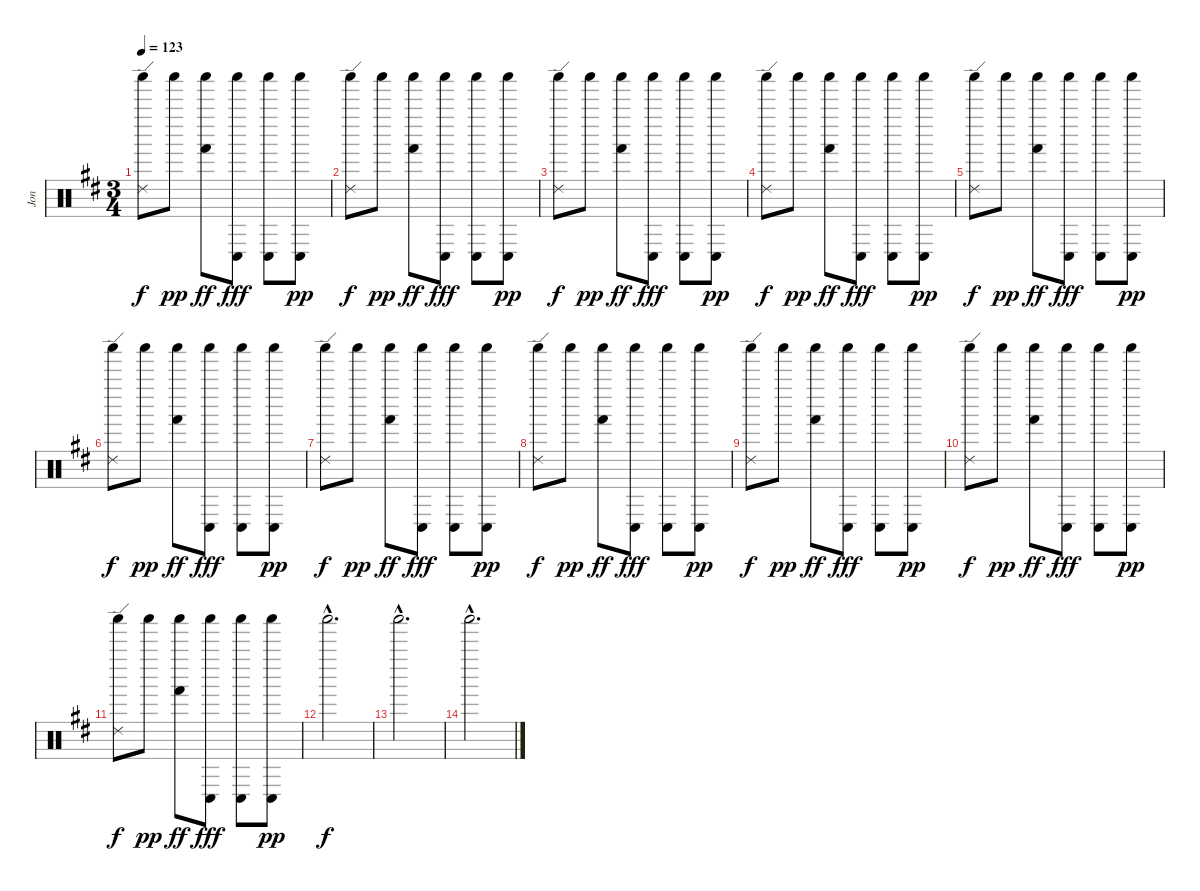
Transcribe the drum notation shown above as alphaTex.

\track ("Jon" "Jon") {instrument percussion}
\staff {score}
\articulation defaults
\ts (3 4)
\tempo 123
\clef neutral
\ks d
("Shaker (hit)" "Ride (edge) 2").8{dy f} "Shaker (hit)".8{dy pp} ("Shaker (hit)" "Hand (hit)").8{dy ff} ("Shaker (hit)" "Conga low (hit)").8{dy fff} ("Shaker (hit)" "Conga low (hit)").8 ("Shaker (hit)" "Conga low (hit)").8{dy pp} |
("Shaker (hit)" "Ride (edge) 2").8{dy f} "Shaker (hit)".8{dy pp} ("Shaker (hit)" "Hand (hit)").8{dy ff} ("Shaker (hit)" "Conga low (hit)").8{dy fff} ("Shaker (hit)" "Conga low (hit)").8 ("Shaker (hit)" "Conga low (hit)").8{dy pp} |
("Shaker (hit)" "Ride (edge) 2").8{dy f} "Shaker (hit)".8{dy pp} ("Shaker (hit)" "Hand (hit)").8{dy ff} ("Shaker (hit)" "Conga low (hit)").8{dy fff} ("Shaker (hit)" "Conga low (hit)").8 ("Shaker (hit)" "Conga low (hit)").8{dy pp} |
\section ("" "")
("Shaker (hit)" "Ride (edge) 2").8{dy f} "Shaker (hit)".8{dy pp} ("Shaker (hit)" "Hand (hit)").8{dy ff} ("Shaker (hit)" "Conga low (hit)").8{dy fff} ("Shaker (hit)" "Conga low (hit)").8 ("Shaker (hit)" "Conga low (hit)").8{dy pp} |
("Shaker (hit)" "Ride (edge) 2").8{dy f} "Shaker (hit)".8{dy pp} ("Shaker (hit)" "Hand (hit)").8{dy ff} ("Shaker (hit)" "Conga low (hit)").8{dy fff} ("Shaker (hit)" "Conga low (hit)").8 ("Shaker (hit)" "Conga low (hit)").8{dy pp} |
("Shaker (hit)" "Ride (edge) 2").8{dy f} "Shaker (hit)".8{dy pp} ("Shaker (hit)" "Hand (hit)").8{dy ff} ("Shaker (hit)" "Conga low (hit)").8{dy fff} ("Shaker (hit)" "Conga low (hit)").8 ("Shaker (hit)" "Conga low (hit)").8{dy pp} |
("Shaker (hit)" "Ride (edge) 2").8{dy f} "Shaker (hit)".8{dy pp} ("Shaker (hit)" "Hand (hit)").8{dy ff} ("Shaker (hit)" "Conga low (hit)").8{dy fff} ("Shaker (hit)" "Conga low (hit)").8 ("Shaker (hit)" "Conga low (hit)").8{dy pp} |
\section ("" "")
("Shaker (hit)" "Ride (edge) 2").8{dy f} "Shaker (hit)".8{dy pp} ("Shaker (hit)" "Hand (hit)").8{dy ff} ("Shaker (hit)" "Conga low (hit)").8{dy fff} ("Shaker (hit)" "Conga low (hit)").8 ("Shaker (hit)" "Conga low (hit)").8{dy pp} |
("Shaker (hit)" "Ride (edge) 2").8{dy f} "Shaker (hit)".8{dy pp} ("Shaker (hit)" "Hand (hit)").8{dy ff} ("Shaker (hit)" "Conga low (hit)").8{dy fff} ("Shaker (hit)" "Conga low (hit)").8 ("Shaker (hit)" "Conga low (hit)").8{dy pp} |
("Shaker (hit)" "Ride (edge) 2").8{dy f} "Shaker (hit)".8{dy pp} ("Shaker (hit)" "Hand (hit)").8{dy ff} ("Shaker (hit)" "Conga low (hit)").8{dy fff} ("Shaker (hit)" "Conga low (hit)").8 ("Shaker (hit)" "Conga low (hit)").8{dy pp} |
("Shaker (hit)" "Ride (edge) 2").8{dy f} "Shaker (hit)".8{dy pp} ("Shaker (hit)" "Hand (hit)").8{dy ff} ("Shaker (hit)" "Conga low (hit)").8{dy fff} ("Shaker (hit)" "Conga low (hit)").8 ("Shaker (hit)" "Conga low (hit)").8{dy pp} |
\section ("" "")
"Shaker (hit)"{hac}.2{d dy f} |
"Shaker (hit)"{hac}.2{d} |
"Shaker (hit)"{hac}.2{d}
